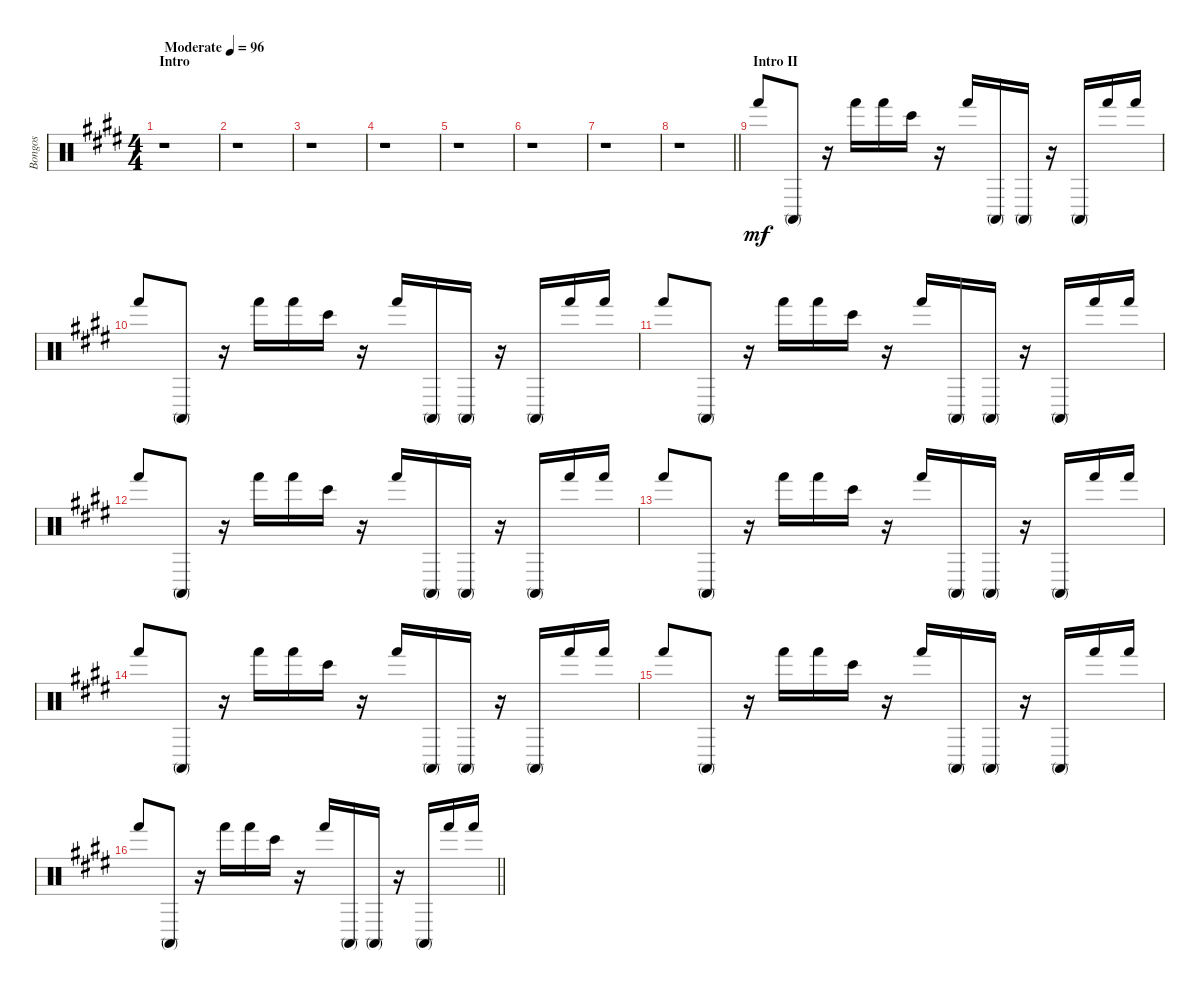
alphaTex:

\track ("Bongos" "Bongos") {instrument percussion}
\staff {score}
\articulation defaults
\ts (4 4)
\section ("" "Intro")
\tempo (96 "Moderate")
\clef neutral
\ks e
r.1{dy mf} |
r.1 |
r.1 |
r.1 |
r.1 |
r.1 |
r.1 |
\barLineRight lightlight
r.1 |
\section ("" "Intro II")
"Hand (hit)".8 "Conga high (mute)".8 r.16 "Hand (hit)".16 "Hand (hit)".16 "Bongo High (hit)".16 r.16 "Hand (hit)".16 "Conga high (mute)".16 "Conga high (mute)".16 r.16 "Conga high (mute)".16 "Hand (hit)".16 "Hand (hit)".16 |
"Hand (hit)".8 "Conga high (mute)".8 r.16 "Hand (hit)".16 "Hand (hit)".16 "Bongo High (hit)".16 r.16 "Hand (hit)".16 "Conga high (mute)".16 "Conga high (mute)".16 r.16 "Conga high (mute)".16 "Hand (hit)".16 "Hand (hit)".16 |
"Hand (hit)".8 "Conga high (mute)".8 r.16 "Hand (hit)".16 "Hand (hit)".16 "Bongo High (hit)".16 r.16 "Hand (hit)".16 "Conga high (mute)".16 "Conga high (mute)".16 r.16 "Conga high (mute)".16 "Hand (hit)".16 "Hand (hit)".16 |
"Hand (hit)".8 "Conga high (mute)".8 r.16 "Hand (hit)".16 "Hand (hit)".16 "Bongo High (hit)".16 r.16 "Hand (hit)".16 "Conga high (mute)".16 "Conga high (mute)".16 r.16 "Conga high (mute)".16 "Hand (hit)".16 "Hand (hit)".16 |
"Hand (hit)".8 "Conga high (mute)".8 r.16 "Hand (hit)".16 "Hand (hit)".16 "Bongo High (hit)".16 r.16 "Hand (hit)".16 "Conga high (mute)".16 "Conga high (mute)".16 r.16 "Conga high (mute)".16 "Hand (hit)".16 "Hand (hit)".16 |
"Hand (hit)".8 "Conga high (mute)".8 r.16 "Hand (hit)".16 "Hand (hit)".16 "Bongo High (hit)".16 r.16 "Hand (hit)".16 "Conga high (mute)".16 "Conga high (mute)".16 r.16 "Conga high (mute)".16 "Hand (hit)".16 "Hand (hit)".16 |
"Hand (hit)".8 "Conga high (mute)".8 r.16 "Hand (hit)".16 "Hand (hit)".16 "Bongo High (hit)".16 r.16 "Hand (hit)".16 "Conga high (mute)".16 "Conga high (mute)".16 r.16 "Conga high (mute)".16 "Hand (hit)".16 "Hand (hit)".16 |
\barLineRight lightlight "Hand (hit)".8 "Conga high (mute)".8
r.16 "Hand (hit)".16 "Hand (hit)".16 "Bongo High (hit)".16 r.16 "Hand (hit)".16 "Conga high (mute)".16 "Conga high (mute)".16 r.16 "Conga high (mute)".16 "Hand (hit)".16 "Hand (hit)".16
